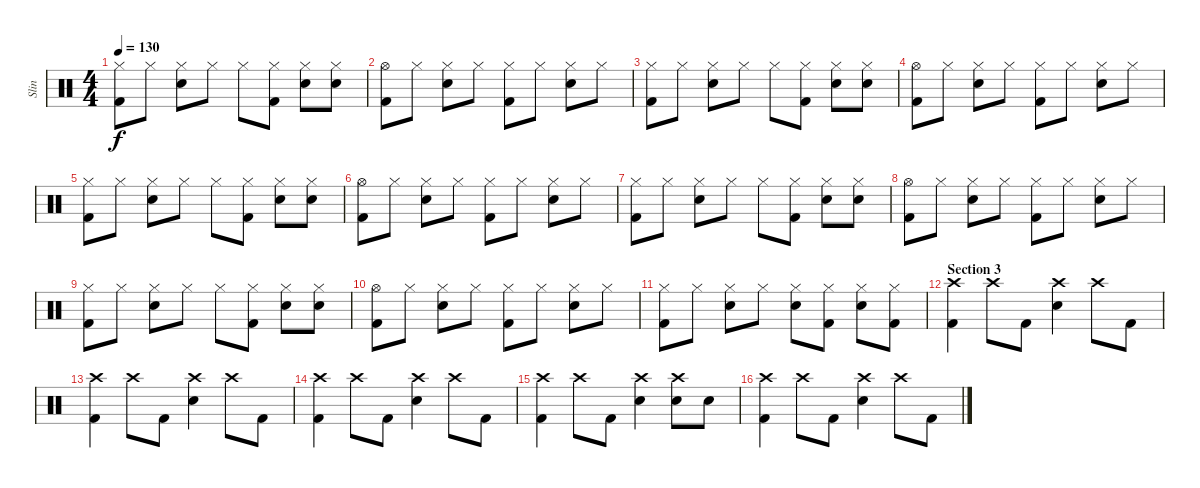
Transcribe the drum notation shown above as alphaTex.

\track ("Slin" "Slin") {instrument percussion}
\staff {score}
\articulation defaults
\ts (4 4)
\tempo 130
\clef neutral
\ks c
("Hi-Hat (closed)" "Kick (hit) 2").8{dy f} "Hi-Hat (closed)".8 ("Hi-Hat (closed)" "Snare (hit) 2").8 "Hi-Hat (closed)".8 "Hi-Hat (closed)".8 ("Hi-Hat (closed)" "Kick (hit) 2").8 ("Hi-Hat (closed)" "Snare (hit) 2").8 ("Hi-Hat (closed)" "Snare (hit) 2").8 |
("Hi-Hat (open)" "Kick (hit) 2").8 "Hi-Hat (closed)".8 ("Hi-Hat (closed)" "Snare (hit) 2").8 "Hi-Hat (closed)".8 ("Hi-Hat (closed)" "Kick (hit) 2").8 "Hi-Hat (closed)".8 ("Hi-Hat (closed)" "Snare (hit) 2").8 "Hi-Hat (closed)".8 |
("Hi-Hat (closed)" "Kick (hit) 2").8 "Hi-Hat (closed)".8 ("Hi-Hat (closed)" "Snare (hit) 2").8 "Hi-Hat (closed)".8 "Hi-Hat (closed)".8 ("Hi-Hat (closed)" "Kick (hit) 2").8 ("Hi-Hat (closed)" "Snare (hit) 2").8 ("Hi-Hat (closed)" "Snare (hit) 2").8 |
("Hi-Hat (open)" "Kick (hit) 2").8 "Hi-Hat (closed)".8 ("Hi-Hat (closed)" "Snare (hit) 2").8 "Hi-Hat (closed)".8 ("Hi-Hat (closed)" "Kick (hit) 2").8 "Hi-Hat (closed)".8 ("Hi-Hat (closed)" "Snare (hit) 2").8 "Hi-Hat (closed)".8 |
("Hi-Hat (closed)" "Kick (hit) 2").8 "Hi-Hat (closed)".8 ("Hi-Hat (closed)" "Snare (hit) 2").8 "Hi-Hat (closed)".8 "Hi-Hat (closed)".8 ("Hi-Hat (closed)" "Kick (hit) 2").8 ("Hi-Hat (closed)" "Snare (hit) 2").8 ("Hi-Hat (closed)" "Snare (hit) 2").8 |
("Hi-Hat (open)" "Kick (hit) 2").8 "Hi-Hat (closed)".8 ("Hi-Hat (closed)" "Snare (hit) 2").8 "Hi-Hat (closed)".8 ("Hi-Hat (closed)" "Kick (hit) 2").8 "Hi-Hat (closed)".8 ("Hi-Hat (closed)" "Snare (hit) 2").8 "Hi-Hat (closed)".8 |
("Hi-Hat (closed)" "Kick (hit) 2").8 "Hi-Hat (closed)".8 ("Hi-Hat (closed)" "Snare (hit) 2").8 "Hi-Hat (closed)".8 "Hi-Hat (closed)".8 ("Hi-Hat (closed)" "Kick (hit) 2").8 ("Hi-Hat (closed)" "Snare (hit) 2").8 ("Hi-Hat (closed)" "Snare (hit) 2").8 |
("Hi-Hat (open)" "Kick (hit) 2").8 "Hi-Hat (closed)".8 ("Hi-Hat (closed)" "Snare (hit) 2").8 "Hi-Hat (closed)".8 ("Hi-Hat (closed)" "Kick (hit) 2").8 "Hi-Hat (closed)".8 ("Hi-Hat (closed)" "Snare (hit) 2").8 "Hi-Hat (closed)".8 |
("Hi-Hat (closed)" "Kick (hit) 2").8 "Hi-Hat (closed)".8 ("Hi-Hat (closed)" "Snare (hit) 2").8 "Hi-Hat (closed)".8 "Hi-Hat (closed)".8 ("Hi-Hat (closed)" "Kick (hit) 2").8 ("Hi-Hat (closed)" "Snare (hit) 2").8 ("Hi-Hat (closed)" "Snare (hit) 2").8 |
("Hi-Hat (open)" "Kick (hit) 2").8 "Hi-Hat (closed)".8 ("Hi-Hat (closed)" "Snare (hit) 2").8 "Hi-Hat (closed)".8 ("Hi-Hat (closed)" "Kick (hit) 2").8 "Hi-Hat (closed)".8 ("Hi-Hat (closed)" "Snare (hit) 2").8 "Hi-Hat (closed)".8 |
("Hi-Hat (closed)" "Kick (hit) 2").8 "Hi-Hat (closed)".8 ("Hi-Hat (closed)" "Snare (hit) 2").8 "Hi-Hat (closed)".8 ("Hi-Hat (closed)" "Snare (hit) 2").8 ("Hi-Hat (closed)" "Kick (hit) 2").8 ("Hi-Hat (closed)" "Snare (hit) 2").8 ("Hi-Hat (closed)" "Kick (hit) 2").8 |
\section ("" "Section 3")
("Crash high (hit)" "Kick (hit) 2").4 "Crash high (hit)".8 "Kick (hit) 2".8 ("Crash high (hit)" "Snare (hit) 2").4 "Crash high (hit)".8 "Kick (hit) 2".8 |
("Crash high (hit)" "Kick (hit) 2").4 "Crash high (hit)".8 "Kick (hit) 2".8 ("Crash high (hit)" "Snare (hit) 2").4 "Crash high (hit)".8 "Kick (hit) 2".8 |
("Crash high (hit)" "Kick (hit) 2").4 "Crash high (hit)".8 "Kick (hit) 2".8 ("Crash high (hit)" "Snare (hit) 2").4 "Crash high (hit)".8 "Kick (hit) 2".8 |
("Crash high (hit)" "Kick (hit) 2").4 "Crash high (hit)".8 "Kick (hit) 2".8 ("Crash high (hit)" "Snare (hit) 2").4 ("Crash high (hit)" "Snare (hit) 2").8 "Snare (hit) 2".8 |
("Crash high (hit)" "Kick (hit) 2").4 "Crash high (hit)".8 "Kick (hit) 2".8 ("Crash high (hit)" "Snare (hit) 2").4 "Crash high (hit)".8 "Kick (hit) 2".8
